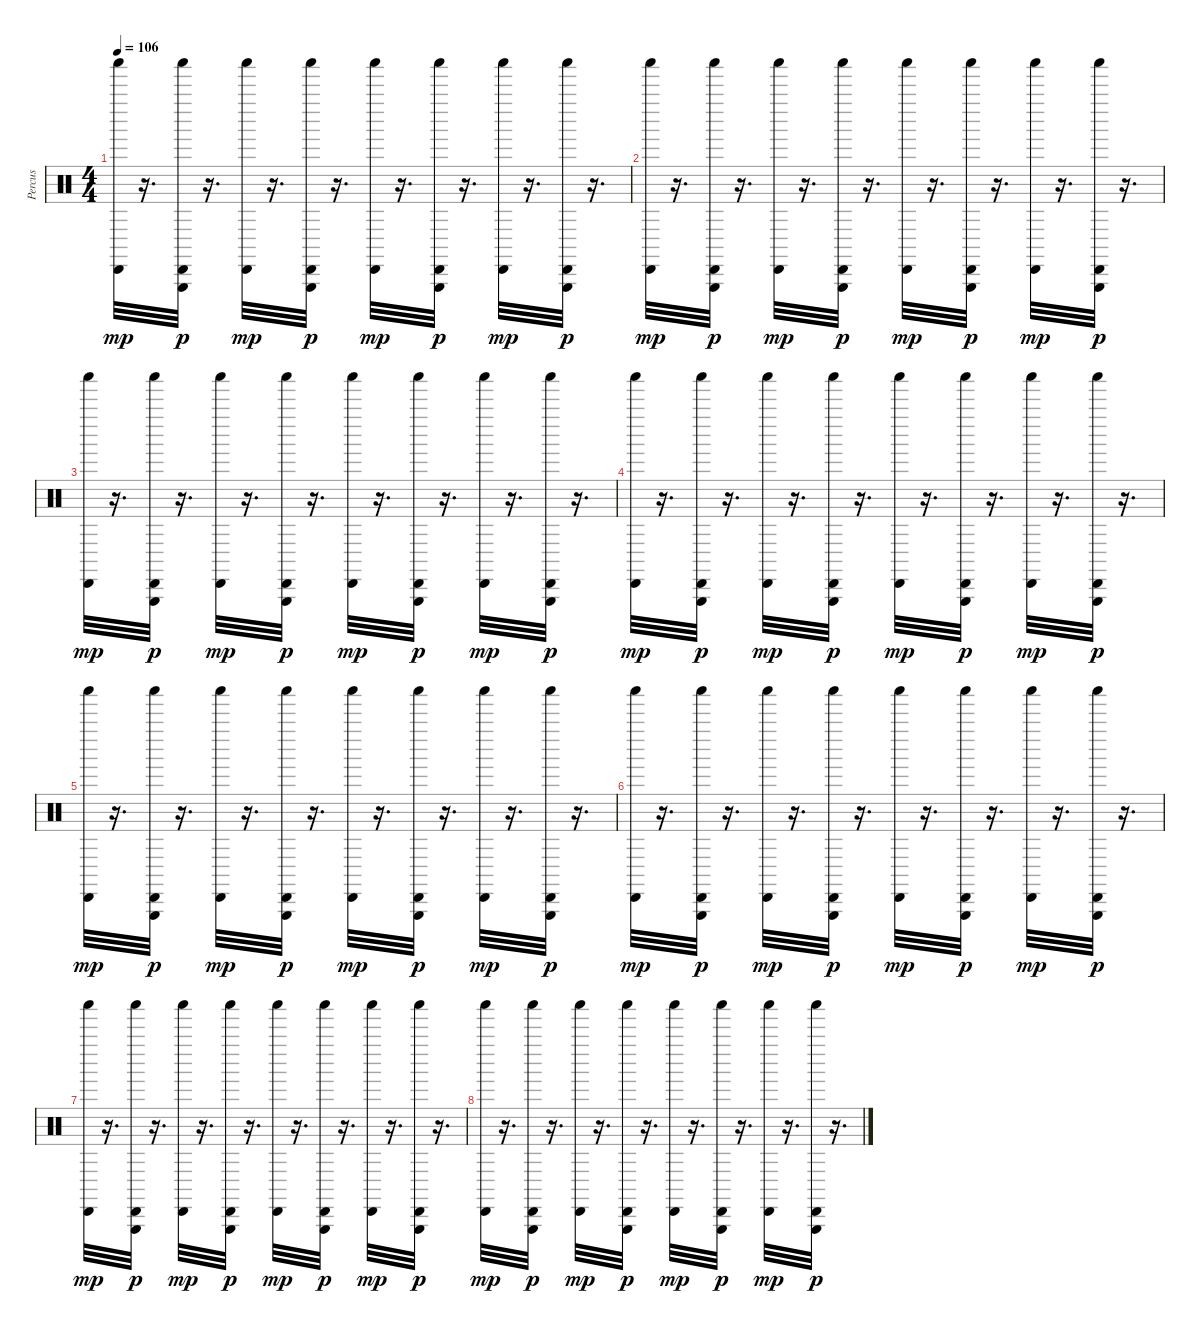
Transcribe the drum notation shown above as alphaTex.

\track ("Percus" "Percus") {instrument percussion}
\staff {score}
\articulation defaults
\ts (4 4)
\tempo 106
\clef neutral
\ks c
("Shaker (hit)" "Cabasa (hit)").32{dy mp} r.16{d} ("Triangle (hit)" "Shaker (hit)" "Cabasa (hit)").32{dy p} r.16{d} ("Shaker (hit)" "Cabasa (hit)").32{dy mp} r.16{d} ("Triangle (hit)" "Shaker (hit)" "Cabasa (hit)").32{dy p} r.16{d} ("Shaker (hit)" "Cabasa (hit)").32{dy mp} r.16{d} ("Triangle (hit)" "Shaker (hit)" "Cabasa (hit)").32{dy p} r.16{d} ("Shaker (hit)" "Cabasa (hit)").32{dy mp} r.16{d} ("Triangle (hit)" "Shaker (hit)" "Cabasa (hit)").32{dy p} r.16{d} |
("Shaker (hit)" "Cabasa (hit)").32{dy mp} r.16{d} ("Triangle (hit)" "Shaker (hit)" "Cabasa (hit)").32{dy p} r.16{d} ("Shaker (hit)" "Cabasa (hit)").32{dy mp} r.16{d} ("Triangle (hit)" "Shaker (hit)" "Cabasa (hit)").32{dy p} r.16{d} ("Shaker (hit)" "Cabasa (hit)").32{dy mp} r.16{d} ("Triangle (hit)" "Shaker (hit)" "Cabasa (hit)").32{dy p} r.16{d} ("Shaker (hit)" "Cabasa (hit)").32{dy mp} r.16{d} ("Triangle (hit)" "Shaker (hit)" "Cabasa (hit)").32{dy p} r.16{d} |
("Shaker (hit)" "Cabasa (hit)").32{dy mp} r.16{d} ("Triangle (hit)" "Shaker (hit)" "Cabasa (hit)").32{dy p} r.16{d} ("Shaker (hit)" "Cabasa (hit)").32{dy mp} r.16{d} ("Triangle (hit)" "Shaker (hit)" "Cabasa (hit)").32{dy p} r.16{d} ("Shaker (hit)" "Cabasa (hit)").32{dy mp} r.16{d} ("Triangle (hit)" "Shaker (hit)" "Cabasa (hit)").32{dy p} r.16{d} ("Shaker (hit)" "Cabasa (hit)").32{dy mp} r.16{d} ("Triangle (hit)" "Shaker (hit)" "Cabasa (hit)").32{dy p} r.16{d} |
("Shaker (hit)" "Cabasa (hit)").32{dy mp} r.16{d} ("Triangle (hit)" "Shaker (hit)" "Cabasa (hit)").32{dy p} r.16{d} ("Shaker (hit)" "Cabasa (hit)").32{dy mp} r.16{d} ("Triangle (hit)" "Shaker (hit)" "Cabasa (hit)").32{dy p} r.16{d} ("Shaker (hit)" "Cabasa (hit)").32{dy mp} r.16{d} ("Triangle (hit)" "Shaker (hit)" "Cabasa (hit)").32{dy p} r.16{d} ("Shaker (hit)" "Cabasa (hit)").32{dy mp} r.16{d} ("Triangle (hit)" "Shaker (hit)" "Cabasa (hit)").32{dy p} r.16{d} |
("Shaker (hit)" "Cabasa (hit)").32{dy mp} r.16{d} ("Triangle (hit)" "Shaker (hit)" "Cabasa (hit)").32{dy p} r.16{d} ("Shaker (hit)" "Cabasa (hit)").32{dy mp} r.16{d} ("Triangle (hit)" "Shaker (hit)" "Cabasa (hit)").32{dy p} r.16{d} ("Shaker (hit)" "Cabasa (hit)").32{dy mp} r.16{d} ("Triangle (hit)" "Shaker (hit)" "Cabasa (hit)").32{dy p} r.16{d} ("Shaker (hit)" "Cabasa (hit)").32{dy mp} r.16{d} ("Triangle (hit)" "Shaker (hit)" "Cabasa (hit)").32{dy p} r.16{d} |
("Shaker (hit)" "Cabasa (hit)").32{dy mp} r.16{d} ("Triangle (hit)" "Shaker (hit)" "Cabasa (hit)").32{dy p} r.16{d} ("Shaker (hit)" "Cabasa (hit)").32{dy mp} r.16{d} ("Triangle (hit)" "Shaker (hit)" "Cabasa (hit)").32{dy p} r.16{d} ("Shaker (hit)" "Cabasa (hit)").32{dy mp} r.16{d} ("Triangle (hit)" "Shaker (hit)" "Cabasa (hit)").32{dy p} r.16{d} ("Shaker (hit)" "Cabasa (hit)").32{dy mp} r.16{d} ("Triangle (hit)" "Shaker (hit)" "Cabasa (hit)").32{dy p} r.16{d} |
("Shaker (hit)" "Cabasa (hit)").32{dy mp} r.16{d} ("Triangle (hit)" "Shaker (hit)" "Cabasa (hit)").32{dy p} r.16{d} ("Shaker (hit)" "Cabasa (hit)").32{dy mp} r.16{d} ("Triangle (hit)" "Shaker (hit)" "Cabasa (hit)").32{dy p} r.16{d} ("Shaker (hit)" "Cabasa (hit)").32{dy mp} r.16{d} ("Triangle (hit)" "Shaker (hit)" "Cabasa (hit)").32{dy p} r.16{d} ("Shaker (hit)" "Cabasa (hit)").32{dy mp} r.16{d} ("Triangle (hit)" "Shaker (hit)" "Cabasa (hit)").32{dy p} r.16{d} |
("Shaker (hit)" "Cabasa (hit)").32{dy mp} r.16{d} ("Triangle (hit)" "Shaker (hit)" "Cabasa (hit)").32{dy p} r.16{d} ("Shaker (hit)" "Cabasa (hit)").32{dy mp} r.16{d} ("Triangle (hit)" "Shaker (hit)" "Cabasa (hit)").32{dy p} r.16{d} ("Shaker (hit)" "Cabasa (hit)").32{dy mp} r.16{d} ("Triangle (hit)" "Shaker (hit)" "Cabasa (hit)").32{dy p} r.16{d} ("Shaker (hit)" "Cabasa (hit)").32{dy mp} r.16{d} ("Triangle (hit)" "Shaker (hit)" "Cabasa (hit)").32{dy p} r.16{d}
